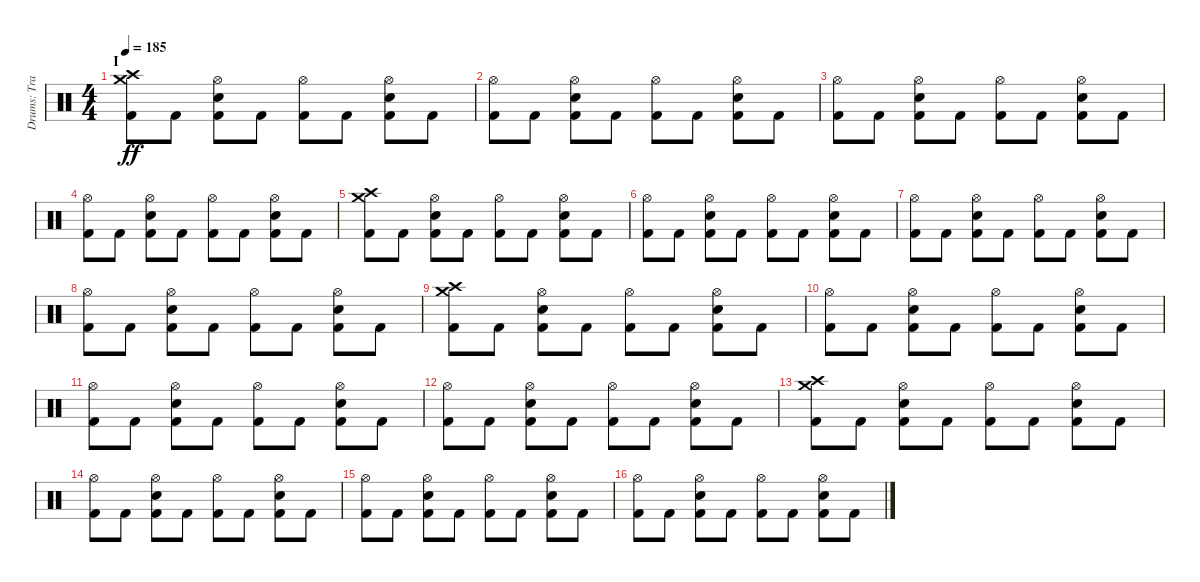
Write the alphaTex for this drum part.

\track ("Drums: Travis Clarke" "Drums: Tra") {instrument percussion}
\staff {score}
\articulation defaults
\ts (4 4)
\section ("" "I")
\tempo 185
\clef neutral
\ks c
("Kick (hit) 2" "Crash high (hit)" "Crash medium (hit)").8{dy ff} "Kick (hit) 2".8 ("Kick (hit) 2" "Snare (hit) 2" "Hi-Hat (open)").8 "Kick (hit) 2".8 ("Kick (hit) 2" "Hi-Hat (open)").8 "Kick (hit) 2".8 ("Kick (hit) 2" "Snare (hit) 2" "Hi-Hat (open)").8 "Kick (hit) 2".8 |
("Kick (hit) 2" "Hi-Hat (open)").8 "Kick (hit) 2".8 ("Kick (hit) 2" "Snare (hit) 2" "Hi-Hat (open)").8 "Kick (hit) 2".8 ("Kick (hit) 2" "Hi-Hat (open)").8 "Kick (hit) 2".8 ("Kick (hit) 2" "Snare (hit) 2" "Hi-Hat (open)").8 "Kick (hit) 2".8 |
("Kick (hit) 2" "Hi-Hat (open)").8 "Kick (hit) 2".8 ("Kick (hit) 2" "Snare (hit) 2" "Hi-Hat (open)").8 "Kick (hit) 2".8 ("Kick (hit) 2" "Hi-Hat (open)").8 "Kick (hit) 2".8 ("Kick (hit) 2" "Snare (hit) 2" "Hi-Hat (open)").8 "Kick (hit) 2".8 |
("Kick (hit) 2" "Hi-Hat (open)").8 "Kick (hit) 2".8 ("Kick (hit) 2" "Snare (hit) 2" "Hi-Hat (open)").8 "Kick (hit) 2".8 ("Kick (hit) 2" "Hi-Hat (open)").8 "Kick (hit) 2".8 ("Kick (hit) 2" "Snare (hit) 2" "Hi-Hat (open)").8 "Kick (hit) 2".8 |
("Kick (hit) 2" "Crash high (hit)" "Crash medium (hit)").8 "Kick (hit) 2".8 ("Kick (hit) 2" "Snare (hit) 2" "Hi-Hat (open)").8 "Kick (hit) 2".8 ("Kick (hit) 2" "Hi-Hat (open)").8 "Kick (hit) 2".8 ("Kick (hit) 2" "Snare (hit) 2" "Hi-Hat (open)").8 "Kick (hit) 2".8 |
("Kick (hit) 2" "Hi-Hat (open)").8 "Kick (hit) 2".8 ("Kick (hit) 2" "Snare (hit) 2" "Hi-Hat (open)").8 "Kick (hit) 2".8 ("Kick (hit) 2" "Hi-Hat (open)").8 "Kick (hit) 2".8 ("Kick (hit) 2" "Snare (hit) 2" "Hi-Hat (open)").8 "Kick (hit) 2".8 |
("Kick (hit) 2" "Hi-Hat (open)").8 "Kick (hit) 2".8 ("Kick (hit) 2" "Snare (hit) 2" "Hi-Hat (open)").8 "Kick (hit) 2".8 ("Kick (hit) 2" "Hi-Hat (open)").8 "Kick (hit) 2".8 ("Kick (hit) 2" "Snare (hit) 2" "Hi-Hat (open)").8 "Kick (hit) 2".8 |
("Kick (hit) 2" "Hi-Hat (open)").8 "Kick (hit) 2".8 ("Kick (hit) 2" "Snare (hit) 2" "Hi-Hat (open)").8 "Kick (hit) 2".8 ("Kick (hit) 2" "Hi-Hat (open)").8 "Kick (hit) 2".8 ("Kick (hit) 2" "Snare (hit) 2" "Hi-Hat (open)").8 "Kick (hit) 2".8 |
("Kick (hit) 2" "Crash high (hit)" "Crash medium (hit)").8 "Kick (hit) 2".8 ("Kick (hit) 2" "Snare (hit) 2" "Hi-Hat (open)").8 "Kick (hit) 2".8 ("Kick (hit) 2" "Hi-Hat (open)").8 "Kick (hit) 2".8 ("Kick (hit) 2" "Snare (hit) 2" "Hi-Hat (open)").8 "Kick (hit) 2".8 |
("Kick (hit) 2" "Hi-Hat (open)").8 "Kick (hit) 2".8 ("Kick (hit) 2" "Snare (hit) 2" "Hi-Hat (open)").8 "Kick (hit) 2".8 ("Kick (hit) 2" "Hi-Hat (open)").8 "Kick (hit) 2".8 ("Kick (hit) 2" "Snare (hit) 2" "Hi-Hat (open)").8 "Kick (hit) 2".8 |
("Kick (hit) 2" "Hi-Hat (open)").8 "Kick (hit) 2".8 ("Kick (hit) 2" "Snare (hit) 2" "Hi-Hat (open)").8 "Kick (hit) 2".8 ("Kick (hit) 2" "Hi-Hat (open)").8 "Kick (hit) 2".8 ("Kick (hit) 2" "Snare (hit) 2" "Hi-Hat (open)").8 "Kick (hit) 2".8 |
("Kick (hit) 2" "Hi-Hat (open)").8 "Kick (hit) 2".8 ("Kick (hit) 2" "Snare (hit) 2" "Hi-Hat (open)").8 "Kick (hit) 2".8 ("Kick (hit) 2" "Hi-Hat (open)").8 "Kick (hit) 2".8 ("Kick (hit) 2" "Snare (hit) 2" "Hi-Hat (open)").8 "Kick (hit) 2".8 |
("Kick (hit) 2" "Crash high (hit)" "Crash medium (hit)").8 "Kick (hit) 2".8 ("Kick (hit) 2" "Snare (hit) 2" "Hi-Hat (open)").8 "Kick (hit) 2".8 ("Kick (hit) 2" "Hi-Hat (open)").8 "Kick (hit) 2".8 ("Kick (hit) 2" "Snare (hit) 2" "Hi-Hat (open)").8 "Kick (hit) 2".8 |
("Kick (hit) 2" "Hi-Hat (open)").8 "Kick (hit) 2".8 ("Kick (hit) 2" "Snare (hit) 2" "Hi-Hat (open)").8 "Kick (hit) 2".8 ("Kick (hit) 2" "Hi-Hat (open)").8 "Kick (hit) 2".8 ("Kick (hit) 2" "Snare (hit) 2" "Hi-Hat (open)").8 "Kick (hit) 2".8 |
("Kick (hit) 2" "Hi-Hat (open)").8 "Kick (hit) 2".8 ("Kick (hit) 2" "Snare (hit) 2" "Hi-Hat (open)").8 "Kick (hit) 2".8 ("Kick (hit) 2" "Hi-Hat (open)").8 "Kick (hit) 2".8 ("Kick (hit) 2" "Snare (hit) 2" "Hi-Hat (open)").8 "Kick (hit) 2".8 |
("Kick (hit) 2" "Hi-Hat (open)").8 "Kick (hit) 2".8 ("Kick (hit) 2" "Snare (hit) 2" "Hi-Hat (open)").8 "Kick (hit) 2".8 ("Kick (hit) 2" "Hi-Hat (open)").8 "Kick (hit) 2".8 ("Kick (hit) 2" "Snare (hit) 2" "Hi-Hat (open)").8 "Kick (hit) 2".8
